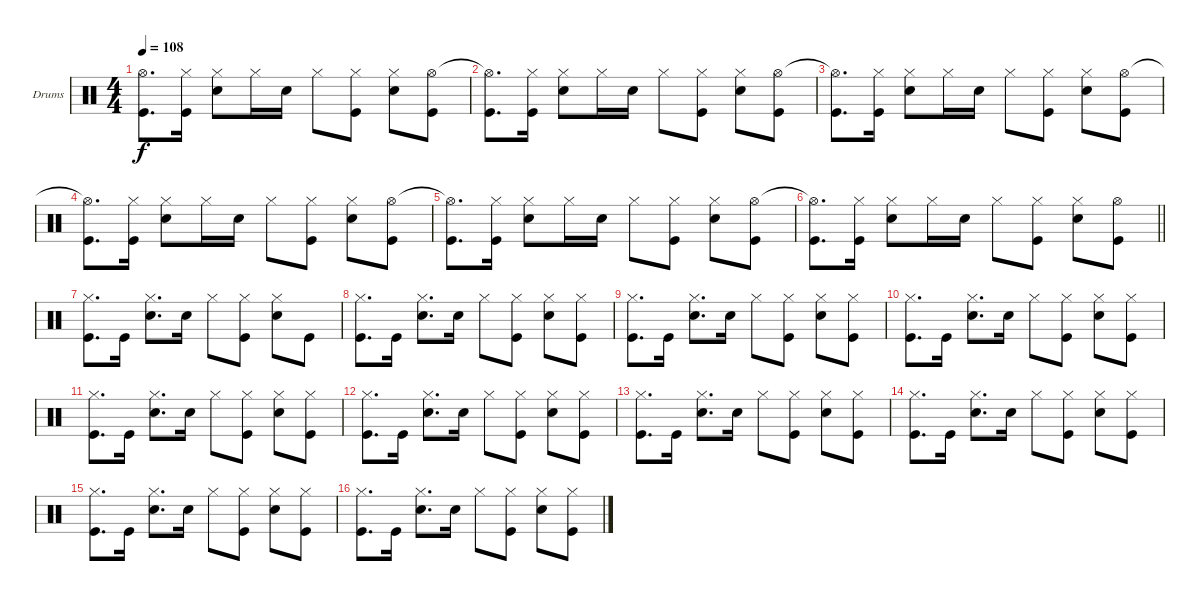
\bracketExtendMode groupsimilarinstruments
\firstSystemTrackNameOrientation horizontal
\otherSystemsTrackNameOrientation horizontal
\track ("Drumkit" "Drums") {instrument percussion}
\staff {score}
\articulation defaults
\ts (4 4)
\tempo 108
\clef neutral
\ks c
("Hi-Hat (open)"{t} "Kick (hit)").8{d dy f} ("Hi-Hat (closed)" "Kick (hit)").16 ("Hi-Hat (closed)" "Snare (hit) 2").8 "Hi-Hat (closed)".16 "Snare (hit) 2".16 "Hi-Hat (closed)".8 ("Hi-Hat (closed)" "Kick (hit)").8 ("Hi-Hat (closed)" "Snare (hit) 2").8 ("Hi-Hat (open)" "Kick (hit)").8 |
("Hi-Hat (open)"{t} "Kick (hit)").8{d} ("Hi-Hat (closed)" "Kick (hit)").16 ("Hi-Hat (closed)" "Snare (hit) 2").8 "Hi-Hat (closed)".16 "Snare (hit) 2".16 "Hi-Hat (closed)".8 ("Hi-Hat (closed)" "Kick (hit)").8 ("Hi-Hat (closed)" "Snare (hit) 2").8 ("Hi-Hat (open)" "Kick (hit)").8 |
("Hi-Hat (open)"{t} "Kick (hit)").8{d} ("Hi-Hat (closed)" "Kick (hit)").16 ("Hi-Hat (closed)" "Snare (hit) 2").8 "Hi-Hat (closed)".16 "Snare (hit) 2".16 "Hi-Hat (closed)".8 ("Hi-Hat (closed)" "Kick (hit)").8 ("Hi-Hat (closed)" "Snare (hit) 2").8 ("Hi-Hat (open)" "Kick (hit)").8 |
("Hi-Hat (open)"{t} "Kick (hit)").8{d} ("Hi-Hat (closed)" "Kick (hit)").16 ("Hi-Hat (closed)" "Snare (hit) 2").8 "Hi-Hat (closed)".16 "Snare (hit) 2".16 "Hi-Hat (closed)".8 ("Hi-Hat (closed)" "Kick (hit)").8 ("Hi-Hat (closed)" "Snare (hit) 2").8 ("Hi-Hat (open)" "Kick (hit)").8 |
("Hi-Hat (open)"{t} "Kick (hit)").8{d} ("Hi-Hat (closed)" "Kick (hit)").16 ("Hi-Hat (closed)" "Snare (hit) 2").8 "Hi-Hat (closed)".16 "Snare (hit) 2".16 "Hi-Hat (closed)".8 ("Hi-Hat (closed)" "Kick (hit)").8 ("Hi-Hat (closed)" "Snare (hit) 2").8 ("Hi-Hat (open)" "Kick (hit)").8 |
\barLineRight lightlight
("Hi-Hat (open)"{t} "Kick (hit)").8{d} ("Hi-Hat (closed)" "Kick (hit)").16 ("Hi-Hat (closed)" "Snare (hit) 2").8 "Hi-Hat (closed)".16 "Snare (hit) 2".16 "Hi-Hat (closed)".8 ("Hi-Hat (closed)" "Kick (hit)").8 ("Hi-Hat (closed)" "Snare (hit) 2").8 ("Hi-Hat (open)" "Kick (hit)").8 |
("Hi-Hat (closed)" "Kick (hit)").8{d} "Kick (hit)".16 ("Hi-Hat (closed)" "Snare (hit) 2").8{d} "Snare (hit) 2".16 "Hi-Hat (closed)".8 ("Hi-Hat (closed)" "Kick (hit)").8 ("Hi-Hat (closed)" "Snare (hit) 2").8 "Kick (hit)".8 |
("Hi-Hat (closed)" "Kick (hit)").8{d} "Kick (hit)".16 ("Hi-Hat (closed)" "Snare (hit) 2").8{d} "Snare (hit) 2".16 "Hi-Hat (closed)".8 ("Hi-Hat (closed)" "Kick (hit)").8 ("Hi-Hat (closed)" "Snare (hit) 2").8 ("Hi-Hat (closed)" "Kick (hit)").8 |
("Hi-Hat (closed)" "Kick (hit)").8{d} "Kick (hit)".16 ("Hi-Hat (closed)" "Snare (hit) 2").8{d} "Snare (hit) 2".16 "Hi-Hat (closed)".8 ("Hi-Hat (closed)" "Kick (hit)").8 ("Hi-Hat (closed)" "Snare (hit) 2").8 ("Hi-Hat (closed)" "Kick (hit)").8 |
("Hi-Hat (closed)" "Kick (hit)").8{d} "Kick (hit)".16 ("Hi-Hat (closed)" "Snare (hit) 2").8{d} "Snare (hit) 2".16 "Hi-Hat (closed)".8 ("Hi-Hat (closed)" "Kick (hit)").8 ("Hi-Hat (closed)" "Snare (hit) 2").8 ("Hi-Hat (closed)" "Kick (hit)").8 |
("Hi-Hat (closed)" "Kick (hit)").8{d} "Kick (hit)".16 ("Hi-Hat (closed)" "Snare (hit) 2").8{d} "Snare (hit) 2".16 "Hi-Hat (closed)".8 ("Hi-Hat (closed)" "Kick (hit)").8 ("Hi-Hat (closed)" "Snare (hit) 2").8 ("Hi-Hat (closed)" "Kick (hit)").8 |
("Hi-Hat (closed)" "Kick (hit)").8{d} "Kick (hit)".16 ("Hi-Hat (closed)" "Snare (hit) 2").8{d} "Snare (hit) 2".16 "Hi-Hat (closed)".8 ("Hi-Hat (closed)" "Kick (hit)").8 ("Hi-Hat (closed)" "Snare (hit) 2").8 ("Hi-Hat (closed)" "Kick (hit)").8 |
("Hi-Hat (closed)" "Kick (hit)").8{d} "Kick (hit)".16 ("Hi-Hat (closed)" "Snare (hit) 2").8{d} "Snare (hit) 2".16 "Hi-Hat (closed)".8 ("Hi-Hat (closed)" "Kick (hit)").8 ("Hi-Hat (closed)" "Snare (hit) 2").8 ("Hi-Hat (closed)" "Kick (hit)").8 |
("Hi-Hat (closed)" "Kick (hit)").8{d} "Kick (hit)".16 ("Hi-Hat (closed)" "Snare (hit) 2").8{d} "Snare (hit) 2".16 "Hi-Hat (closed)".8 ("Hi-Hat (closed)" "Kick (hit)").8 ("Hi-Hat (closed)" "Snare (hit) 2").8 ("Hi-Hat (closed)" "Kick (hit)").8 |
("Hi-Hat (closed)" "Kick (hit)").8{d} "Kick (hit)".16 ("Hi-Hat (closed)" "Snare (hit) 2").8{d} "Snare (hit) 2".16 "Hi-Hat (closed)".8 ("Hi-Hat (closed)" "Kick (hit)").8 ("Hi-Hat (closed)" "Snare (hit) 2").8 ("Hi-Hat (closed)" "Kick (hit)").8 |
("Hi-Hat (closed)" "Kick (hit)").8{d} "Kick (hit)".16 ("Hi-Hat (closed)" "Snare (hit) 2").8{d} "Snare (hit) 2".16 "Hi-Hat (closed)".8 ("Hi-Hat (closed)" "Kick (hit)").8 ("Hi-Hat (closed)" "Snare (hit) 2").8 ("Hi-Hat (closed)" "Kick (hit)").8
